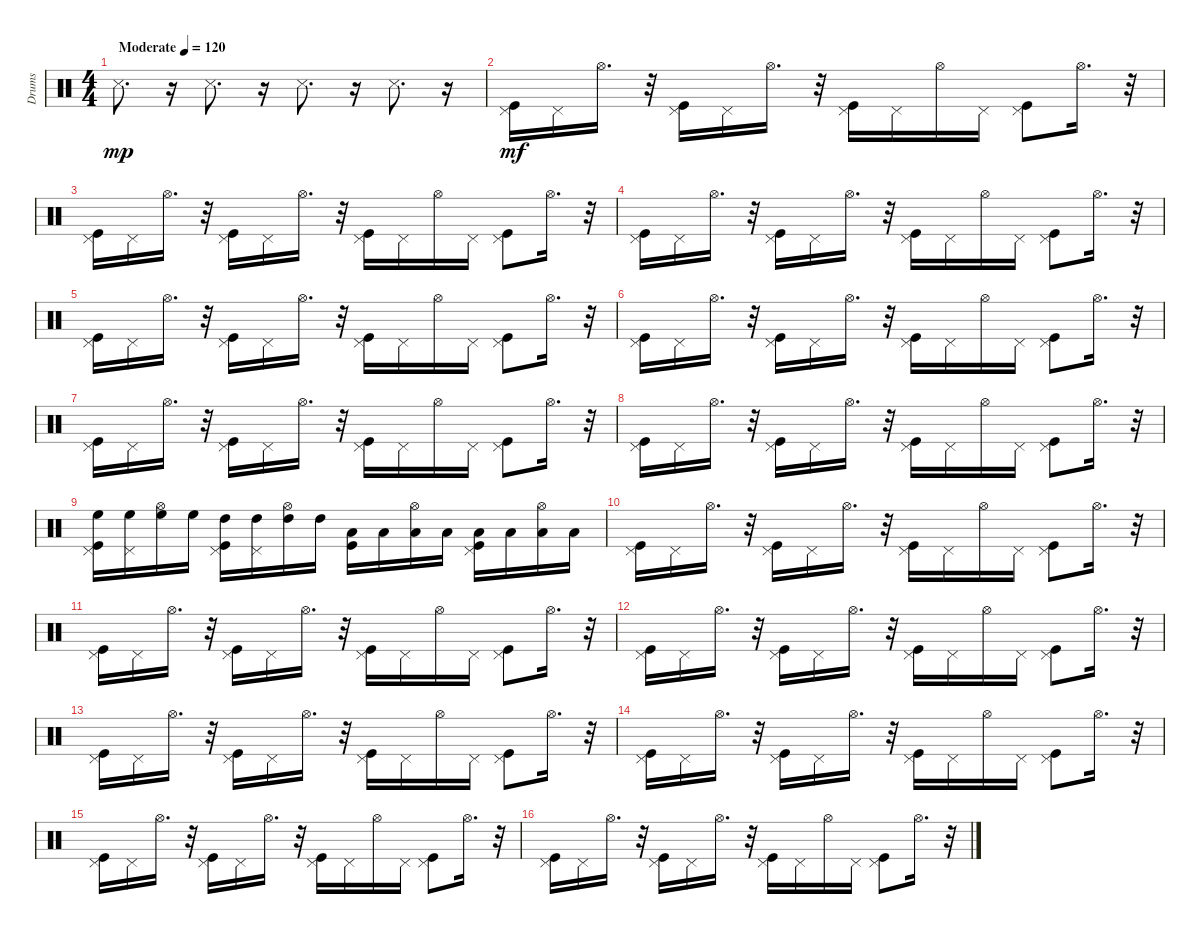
\track ("Drums" "Drums") {instrument percussion}
\staff {score}
\articulation defaults
\ts (4 4)
\tempo (120 "Moderate")
\clef neutral
\ks c "Snare (side stick) 3".8{d dy mp}
r.16 "Snare (side stick) 3".8{d} r.16 "Snare (side stick) 3".8{d} r.16 "Snare (side stick) 3".8{d} r.16 |
("Pedal Hi-Hat (hit)" "Kick (hit)").16{dy mf} "Pedal Hi-Hat (hit)".16 "Hi-Hat (open)".16{d} r.32 ("Pedal Hi-Hat (hit)" "Kick (hit)").16 "Pedal Hi-Hat (hit)".16 "Hi-Hat (open)".16{d} r.32 ("Pedal Hi-Hat (hit)" "Kick (hit)").16 "Pedal Hi-Hat (hit)".16 "Hi-Hat (open)".16 "Pedal Hi-Hat (hit)".16 ("Pedal Hi-Hat (hit)" "Kick (hit)").8 "Hi-Hat (open)".16{d} r.32 |
("Pedal Hi-Hat (hit)" "Kick (hit)").16 "Pedal Hi-Hat (hit)".16 "Hi-Hat (open)".16{d} r.32 ("Pedal Hi-Hat (hit)" "Kick (hit)").16 "Pedal Hi-Hat (hit)".16 "Hi-Hat (open)".16{d} r.32 ("Pedal Hi-Hat (hit)" "Kick (hit)").16 "Pedal Hi-Hat (hit)".16 "Hi-Hat (open)".16 "Pedal Hi-Hat (hit)".16 ("Pedal Hi-Hat (hit)" "Kick (hit)").8 "Hi-Hat (open)".16{d} r.32 |
("Pedal Hi-Hat (hit)" "Kick (hit)").16 "Pedal Hi-Hat (hit)".16 "Hi-Hat (open)".16{d} r.32 ("Pedal Hi-Hat (hit)" "Kick (hit)").16 "Pedal Hi-Hat (hit)".16 "Hi-Hat (open)".16{d} r.32 ("Pedal Hi-Hat (hit)" "Kick (hit)").16 "Pedal Hi-Hat (hit)".16 "Hi-Hat (open)".16 "Pedal Hi-Hat (hit)".16 ("Pedal Hi-Hat (hit)" "Kick (hit)").8 "Hi-Hat (open)".16{d} r.32 |
("Pedal Hi-Hat (hit)" "Kick (hit)").16 "Pedal Hi-Hat (hit)".16 "Hi-Hat (open)".16{d} r.32 ("Pedal Hi-Hat (hit)" "Kick (hit)").16 "Pedal Hi-Hat (hit)".16 "Hi-Hat (open)".16{d} r.32 ("Pedal Hi-Hat (hit)" "Kick (hit)").16 "Pedal Hi-Hat (hit)".16 "Hi-Hat (open)".16 "Pedal Hi-Hat (hit)".16 ("Pedal Hi-Hat (hit)" "Kick (hit)").8 "Hi-Hat (open)".16{d} r.32 |
("Pedal Hi-Hat (hit)" "Kick (hit)").16 "Pedal Hi-Hat (hit)".16 "Hi-Hat (open)".16{d} r.32 ("Pedal Hi-Hat (hit)" "Kick (hit)").16 "Pedal Hi-Hat (hit)".16 "Hi-Hat (open)".16{d} r.32 ("Pedal Hi-Hat (hit)" "Kick (hit)").16 "Pedal Hi-Hat (hit)".16 "Hi-Hat (open)".16 "Pedal Hi-Hat (hit)".16 ("Pedal Hi-Hat (hit)" "Kick (hit)").8 "Hi-Hat (open)".16{d} r.32 |
("Pedal Hi-Hat (hit)" "Kick (hit)").16 "Pedal Hi-Hat (hit)".16 "Hi-Hat (open)".16{d} r.32 ("Pedal Hi-Hat (hit)" "Kick (hit)").16 "Pedal Hi-Hat (hit)".16 "Hi-Hat (open)".16{d} r.32 ("Pedal Hi-Hat (hit)" "Kick (hit)").16 "Pedal Hi-Hat (hit)".16 "Hi-Hat (open)".16 "Pedal Hi-Hat (hit)".16 ("Pedal Hi-Hat (hit)" "Kick (hit)").8 "Hi-Hat (open)".16{d} r.32 |
("Pedal Hi-Hat (hit)" "Kick (hit)").16 "Pedal Hi-Hat (hit)".16 "Hi-Hat (open)".16{d} r.32 ("Pedal Hi-Hat (hit)" "Kick (hit)").16 "Pedal Hi-Hat (hit)".16 "Hi-Hat (open)".16{d} r.32 ("Pedal Hi-Hat (hit)" "Kick (hit)").16 "Pedal Hi-Hat (hit)".16 "Hi-Hat (open)".16 "Pedal Hi-Hat (hit)".16 ("Pedal Hi-Hat (hit)" "Kick (hit)").8 "Hi-Hat (open)".16{d} r.32 |
("Pedal Hi-Hat (hit)" "Kick (hit)" "High Floor Tom (hit)").16 ("Pedal Hi-Hat (hit)" "High Floor Tom (hit)").16 ("Hi-Hat (open)" "High Floor Tom (hit)").16 "High Floor Tom (hit)".16 ("Pedal Hi-Hat (hit)" "High Tom (hit)" "Kick (hit)").16 ("Pedal Hi-Hat (hit)" "High Tom (hit)").16 ("Hi-Hat (open)" "High Tom (hit)").16 "High Tom (hit)".16 ("Low Tom (hit)" "Kick (hit)").16 "Low Tom (hit)".16 ("Hi-Hat (open)" "Low Tom (hit)").16 "Low Tom (hit)".16 ("Pedal Hi-Hat (hit)" "Low Floor Tom (hit)" "Kick (hit)").16 "Low Floor Tom (hit)".16 ("Hi-Hat (open)" "Low Floor Tom (hit)").16 "Low Floor Tom (hit)".16 |
("Pedal Hi-Hat (hit)" "Kick (hit)").16 "Pedal Hi-Hat (hit)".16 "Hi-Hat (open)".16{d} r.32 ("Pedal Hi-Hat (hit)" "Kick (hit)").16 "Pedal Hi-Hat (hit)".16 "Hi-Hat (open)".16{d} r.32 ("Pedal Hi-Hat (hit)" "Kick (hit)").16 "Pedal Hi-Hat (hit)".16 "Hi-Hat (open)".16 "Pedal Hi-Hat (hit)".16 ("Pedal Hi-Hat (hit)" "Kick (hit)").8 "Hi-Hat (open)".16{d} r.32 |
("Pedal Hi-Hat (hit)" "Kick (hit)").16 "Pedal Hi-Hat (hit)".16 "Hi-Hat (open)".16{d} r.32 ("Pedal Hi-Hat (hit)" "Kick (hit)").16 "Pedal Hi-Hat (hit)".16 "Hi-Hat (open)".16{d} r.32 ("Pedal Hi-Hat (hit)" "Kick (hit)").16 "Pedal Hi-Hat (hit)".16 "Hi-Hat (open)".16 "Pedal Hi-Hat (hit)".16 ("Pedal Hi-Hat (hit)" "Kick (hit)").8 "Hi-Hat (open)".16{d} r.32 |
("Pedal Hi-Hat (hit)" "Kick (hit)").16 "Pedal Hi-Hat (hit)".16 "Hi-Hat (open)".16{d} r.32 ("Pedal Hi-Hat (hit)" "Kick (hit)").16 "Pedal Hi-Hat (hit)".16 "Hi-Hat (open)".16{d} r.32 ("Pedal Hi-Hat (hit)" "Kick (hit)").16 "Pedal Hi-Hat (hit)".16 "Hi-Hat (open)".16 "Pedal Hi-Hat (hit)".16 ("Pedal Hi-Hat (hit)" "Kick (hit)").8 "Hi-Hat (open)".16{d} r.32 |
("Pedal Hi-Hat (hit)" "Kick (hit)").16 "Pedal Hi-Hat (hit)".16 "Hi-Hat (open)".16{d} r.32 ("Pedal Hi-Hat (hit)" "Kick (hit)").16 "Pedal Hi-Hat (hit)".16 "Hi-Hat (open)".16{d} r.32 ("Pedal Hi-Hat (hit)" "Kick (hit)").16 "Pedal Hi-Hat (hit)".16 "Hi-Hat (open)".16 "Pedal Hi-Hat (hit)".16 ("Pedal Hi-Hat (hit)" "Kick (hit)").8 "Hi-Hat (open)".16{d} r.32 |
("Pedal Hi-Hat (hit)" "Kick (hit)").16 "Pedal Hi-Hat (hit)".16 "Hi-Hat (open)".16{d} r.32 ("Pedal Hi-Hat (hit)" "Kick (hit)").16 "Pedal Hi-Hat (hit)".16 "Hi-Hat (open)".16{d} r.32 ("Pedal Hi-Hat (hit)" "Kick (hit)").16 "Pedal Hi-Hat (hit)".16 "Hi-Hat (open)".16 "Pedal Hi-Hat (hit)".16 ("Pedal Hi-Hat (hit)" "Kick (hit)").8 "Hi-Hat (open)".16{d} r.32 |
("Pedal Hi-Hat (hit)" "Kick (hit)").16 "Pedal Hi-Hat (hit)".16 "Hi-Hat (open)".16{d} r.32 ("Pedal Hi-Hat (hit)" "Kick (hit)").16 "Pedal Hi-Hat (hit)".16 "Hi-Hat (open)".16{d} r.32 ("Pedal Hi-Hat (hit)" "Kick (hit)").16 "Pedal Hi-Hat (hit)".16 "Hi-Hat (open)".16 "Pedal Hi-Hat (hit)".16 ("Pedal Hi-Hat (hit)" "Kick (hit)").8 "Hi-Hat (open)".16{d} r.32 |
("Pedal Hi-Hat (hit)" "Kick (hit)").16 "Pedal Hi-Hat (hit)".16 "Hi-Hat (open)".16{d} r.32 ("Pedal Hi-Hat (hit)" "Kick (hit)").16 "Pedal Hi-Hat (hit)".16 "Hi-Hat (open)".16{d} r.32 ("Pedal Hi-Hat (hit)" "Kick (hit)").16 "Pedal Hi-Hat (hit)".16 "Hi-Hat (open)".16 "Pedal Hi-Hat (hit)".16 ("Pedal Hi-Hat (hit)" "Kick (hit)").8 "Hi-Hat (open)".16{d} r.32
